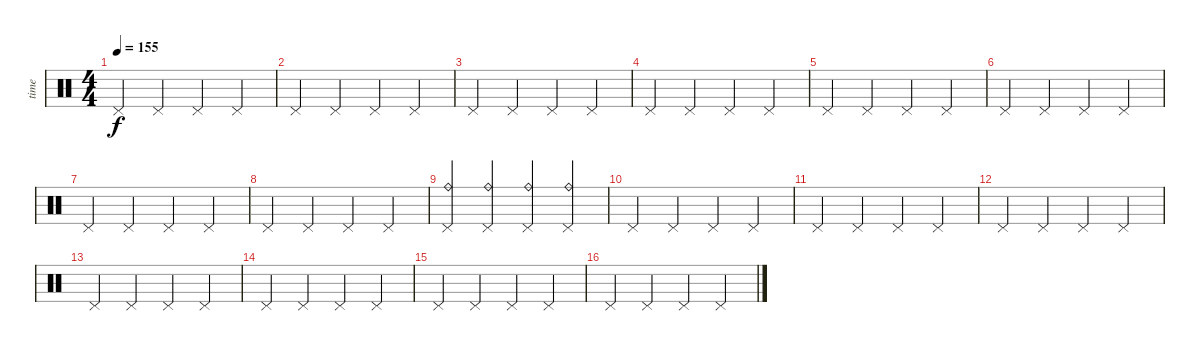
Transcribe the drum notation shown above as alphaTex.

\track ("time" "time") {instrument percussion}
\staff {score}
\articulation defaults
\ts (4 4)
\tempo 155
\clef neutral
\ks c "Pedal Hi-Hat (hit)".4{dy f} "Pedal Hi-Hat (hit)".4 "Pedal Hi-Hat (hit)".4 "Pedal Hi-Hat (hit)".4
|
"Pedal Hi-Hat (hit)".4 "Pedal Hi-Hat (hit)".4 "Pedal Hi-Hat (hit)".4 "Pedal Hi-Hat (hit)".4 |
"Pedal Hi-Hat (hit)".4 "Pedal Hi-Hat (hit)".4 "Pedal Hi-Hat (hit)".4 "Pedal Hi-Hat (hit)".4 |
"Pedal Hi-Hat (hit)".4 "Pedal Hi-Hat (hit)".4 "Pedal Hi-Hat (hit)".4 "Pedal Hi-Hat (hit)".4 |
"Pedal Hi-Hat (hit)".4 "Pedal Hi-Hat (hit)".4 "Pedal Hi-Hat (hit)".4 "Pedal Hi-Hat (hit)".4 |
"Pedal Hi-Hat (hit)".4 "Pedal Hi-Hat (hit)".4 "Pedal Hi-Hat (hit)".4 "Pedal Hi-Hat (hit)".4 |
"Pedal Hi-Hat (hit)".4 "Pedal Hi-Hat (hit)".4 "Pedal Hi-Hat (hit)".4 "Pedal Hi-Hat (hit)".4 |
"Pedal Hi-Hat (hit)".4 "Pedal Hi-Hat (hit)".4 "Pedal Hi-Hat (hit)".4 "Pedal Hi-Hat (hit)".4 |
("Pedal Hi-Hat (hit)" "Ride (bell)").4 ("Pedal Hi-Hat (hit)" "Ride (bell)").4 ("Pedal Hi-Hat (hit)" "Ride (bell)").4 ("Pedal Hi-Hat (hit)" "Ride (bell)").4 |
"Pedal Hi-Hat (hit)".4 "Pedal Hi-Hat (hit)".4 "Pedal Hi-Hat (hit)".4 "Pedal Hi-Hat (hit)".4 |
"Pedal Hi-Hat (hit)".4 "Pedal Hi-Hat (hit)".4 "Pedal Hi-Hat (hit)".4 "Pedal Hi-Hat (hit)".4 |
"Pedal Hi-Hat (hit)".4 "Pedal Hi-Hat (hit)".4 "Pedal Hi-Hat (hit)".4 "Pedal Hi-Hat (hit)".4 |
"Pedal Hi-Hat (hit)".4 "Pedal Hi-Hat (hit)".4 "Pedal Hi-Hat (hit)".4 "Pedal Hi-Hat (hit)".4 |
"Pedal Hi-Hat (hit)".4 "Pedal Hi-Hat (hit)".4 "Pedal Hi-Hat (hit)".4 "Pedal Hi-Hat (hit)".4 |
"Pedal Hi-Hat (hit)".4 "Pedal Hi-Hat (hit)".4 "Pedal Hi-Hat (hit)".4 "Pedal Hi-Hat (hit)".4 |
"Pedal Hi-Hat (hit)".4 "Pedal Hi-Hat (hit)".4 "Pedal Hi-Hat (hit)".4 "Pedal Hi-Hat (hit)".4
